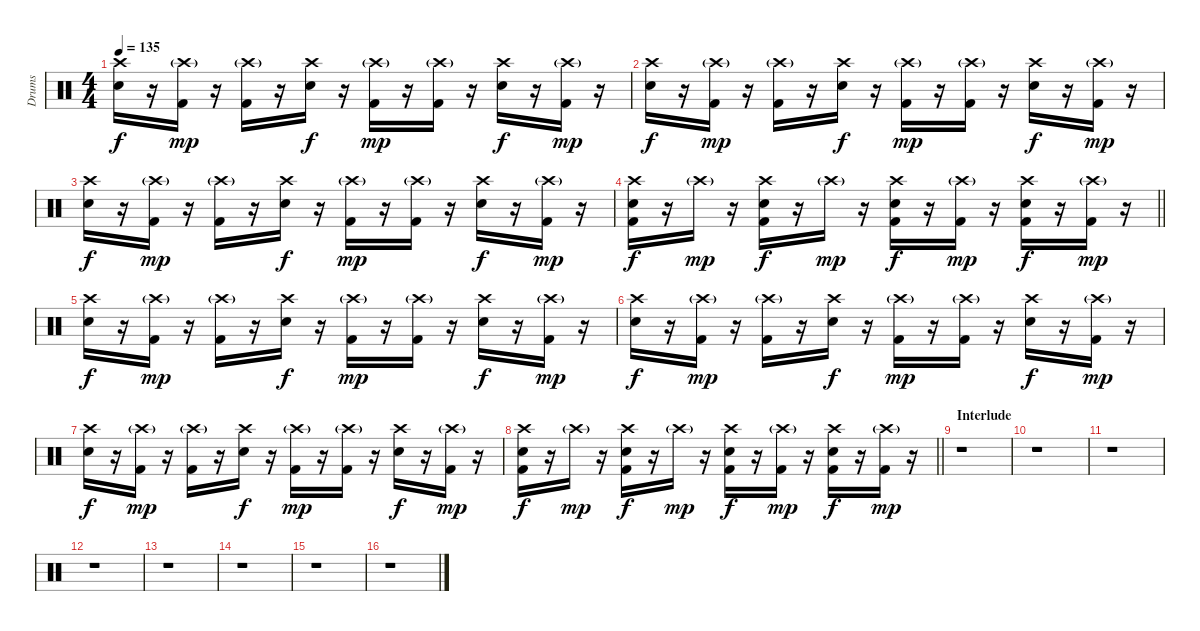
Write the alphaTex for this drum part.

\track ("Drums" "Drums") {instrument percussion}
\staff {score}
\articulation defaults
\ts (4 4)
\tempo 135
\clef neutral
\ks c
("Snare (hit) 2" "Crash high (hit)").16{dy f} r.16 ("Kick (hit) 2" "Crash high (hit)"{g}).16{dy mp} r.16 ("Kick (hit) 2" "Crash high (hit)"{g}).16 r.16 ("Snare (hit) 2" "Crash high (hit)").16{dy f} r.16 ("Kick (hit) 2" "Crash high (hit)"{g}).16{dy mp} r.16 ("Kick (hit) 2" "Crash high (hit)"{g}).16 r.16 ("Snare (hit) 2" "Crash high (hit)").16{dy f} r.16 ("Kick (hit) 2" "Crash high (hit)"{g}).16{dy mp} r.16 |
("Snare (hit) 2" "Crash high (hit)").16{dy f} r.16 ("Kick (hit) 2" "Crash high (hit)"{g}).16{dy mp} r.16 ("Kick (hit) 2" "Crash high (hit)"{g}).16 r.16 ("Snare (hit) 2" "Crash high (hit)").16{dy f} r.16 ("Kick (hit) 2" "Crash high (hit)"{g}).16{dy mp} r.16 ("Kick (hit) 2" "Crash high (hit)"{g}).16 r.16 ("Snare (hit) 2" "Crash high (hit)").16{dy f} r.16 ("Kick (hit) 2" "Crash high (hit)"{g}).16{dy mp} r.16 |
("Snare (hit) 2" "Crash high (hit)").16{dy f} r.16 ("Kick (hit) 2" "Crash high (hit)"{g}).16{dy mp} r.16 ("Kick (hit) 2" "Crash high (hit)"{g}).16 r.16 ("Snare (hit) 2" "Crash high (hit)").16{dy f} r.16 ("Kick (hit) 2" "Crash high (hit)"{g}).16{dy mp} r.16 ("Kick (hit) 2" "Crash high (hit)"{g}).16 r.16 ("Snare (hit) 2" "Crash high (hit)").16{dy f} r.16 ("Kick (hit) 2" "Crash high (hit)"{g}).16{dy mp} r.16 |
\barLineRight lightlight
("Kick (hit) 2" "Snare (hit) 2" "Crash high (hit)").16{dy f} r.16 "Crash high (hit)"{g}.16{dy mp} r.16 ("Kick (hit) 2" "Snare (hit) 2" "Crash high (hit)").16{dy f} r.16 "Crash high (hit)"{g}.16{dy mp} r.16 ("Kick (hit) 2" "Snare (hit) 2" "Crash high (hit)").16{dy f} r.16 ("Kick (hit) 2" "Crash high (hit)"{g}).16{dy mp} r.16 ("Kick (hit) 2" "Snare (hit) 2" "Crash high (hit)").16{dy f} r.16 ("Kick (hit) 2" "Crash high (hit)"{g}).16{dy mp} r.16 |
("Snare (hit) 2" "Crash high (hit)").16{dy f} r.16 ("Kick (hit) 2" "Crash high (hit)"{g}).16{dy mp} r.16 ("Kick (hit) 2" "Crash high (hit)"{g}).16 r.16 ("Snare (hit) 2" "Crash high (hit)").16{dy f} r.16 ("Kick (hit) 2" "Crash high (hit)"{g}).16{dy mp} r.16 ("Kick (hit) 2" "Crash high (hit)"{g}).16 r.16 ("Snare (hit) 2" "Crash high (hit)").16{dy f} r.16 ("Kick (hit) 2" "Crash high (hit)"{g}).16{dy mp} r.16 |
("Snare (hit) 2" "Crash high (hit)").16{dy f} r.16 ("Kick (hit) 2" "Crash high (hit)"{g}).16{dy mp} r.16 ("Kick (hit) 2" "Crash high (hit)"{g}).16 r.16 ("Snare (hit) 2" "Crash high (hit)").16{dy f} r.16 ("Kick (hit) 2" "Crash high (hit)"{g}).16{dy mp} r.16 ("Kick (hit) 2" "Crash high (hit)"{g}).16 r.16 ("Snare (hit) 2" "Crash high (hit)").16{dy f} r.16 ("Kick (hit) 2" "Crash high (hit)"{g}).16{dy mp} r.16 |
("Snare (hit) 2" "Crash high (hit)").16{dy f} r.16 ("Kick (hit) 2" "Crash high (hit)"{g}).16{dy mp} r.16 ("Kick (hit) 2" "Crash high (hit)"{g}).16 r.16 ("Snare (hit) 2" "Crash high (hit)").16{dy f} r.16 ("Kick (hit) 2" "Crash high (hit)"{g}).16{dy mp} r.16 ("Kick (hit) 2" "Crash high (hit)"{g}).16 r.16 ("Snare (hit) 2" "Crash high (hit)").16{dy f} r.16 ("Kick (hit) 2" "Crash high (hit)"{g}).16{dy mp} r.16 |
\barLineRight lightlight
("Kick (hit) 2" "Snare (hit) 2" "Crash high (hit)").16{dy f} r.16 "Crash high (hit)"{g}.16{dy mp} r.16 ("Kick (hit) 2" "Snare (hit) 2" "Crash high (hit)").16{dy f} r.16 "Crash high (hit)"{g}.16{dy mp} r.16 ("Kick (hit) 2" "Snare (hit) 2" "Crash high (hit)").16{dy f} r.16 ("Kick (hit) 2" "Crash high (hit)"{g}).16{dy mp} r.16 ("Kick (hit) 2" "Snare (hit) 2" "Crash high (hit)").16{dy f} r.16 ("Kick (hit) 2" "Crash high (hit)"{g}).16{dy mp} r.16 |
\section ("" "Interlude")
r.1{volume 11} |
r.1 |
r.1 |
r.1 |
r.1 |
r.1 |
r.1 |
r.1
